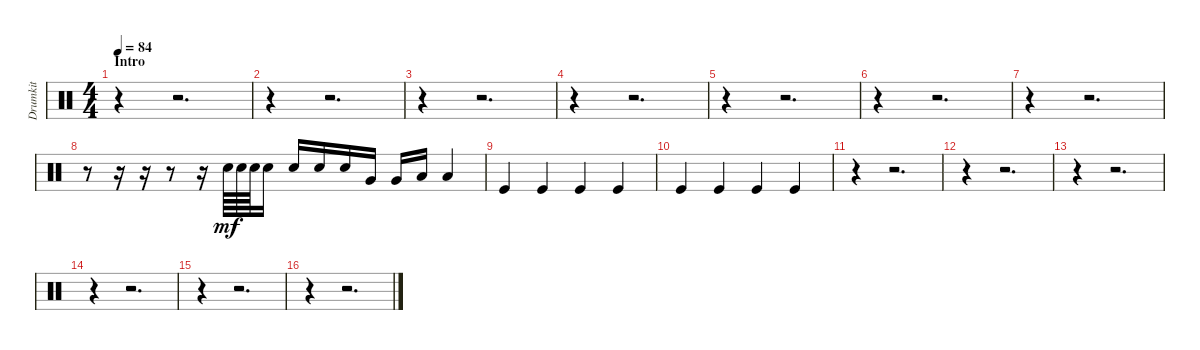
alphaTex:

\track ("Drumkit" "Drumkit") {instrument percussion}
\staff {score}
\articulation defaults
\ts (4 4)
\section ("" "Intro")
\tempo 84
\clef neutral
\ks c
r.4{dy mf} r.2{d} |
r.4 r.2{d} |
r.4 r.2{d} |
r.4 r.2{d} |
r.4 r.2{d} |
r.4 r.2{d} |
r.4 r.2{d} |
r.8 r.16 r.16 r.8 r.16 "Snare (hit) 2".64 "Snare (hit) 2".64 "Snare (hit) 2".64 "Snare (hit) 2".16 "Snare (hit) 2".16 "Snare (hit) 2".16 "Snare (hit) 2".16 "Very Low Tom (hit)".16 "Very Low Tom (hit)".16 "Low Floor Tom (hit)".16 "Low Floor Tom (hit)".4 |
"Kick (hit)".4 "Kick (hit)".4 "Kick (hit)".4 "Kick (hit)".4 |
"Kick (hit)".4 "Kick (hit)".4 "Kick (hit)".4 "Kick (hit)".4 |
r.4 r.2{d} |
r.4 r.2{d} |
r.4 r.2{d} |
r.4 r.2{d} |
r.4 r.2{d} |
r.4 r.2{d}
